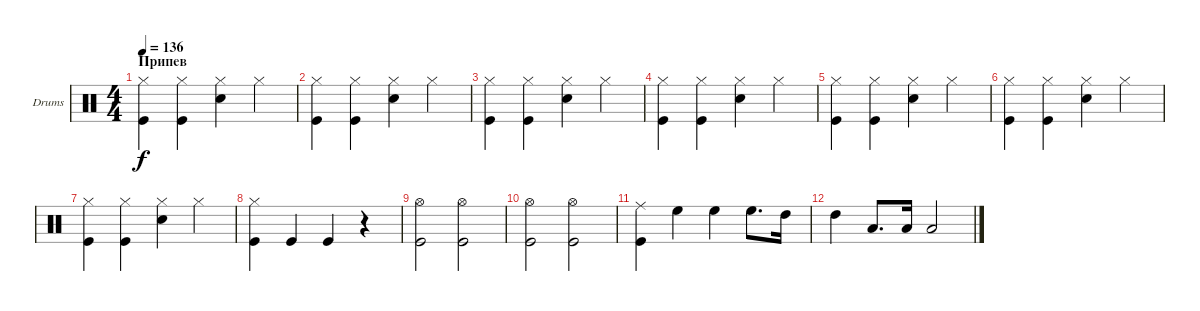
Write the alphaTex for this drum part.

\defaultSystemsLayout 4
\bracketExtendMode groupsimilarinstruments
\firstSystemTrackNameOrientation horizontal
\otherSystemsTrackNameOrientation horizontal
\track ("Drumkit" "Drums") {instrument percussion}
\staff {score}
\articulation defaults
\ts (4 4)
\section ("" "Припев")
\tempo 136
\clef neutral
\ks c
("Hi-Hat (closed)" "Kick (hit)").4{dy f} ("Hi-Hat (closed)" "Kick (hit)").4 ("Snare (hit) 2" "Hi-Hat (closed)").4 "Hi-Hat (closed)".4 |
("Hi-Hat (closed)" "Kick (hit)").4 ("Hi-Hat (closed)" "Kick (hit)").4 ("Snare (hit) 2" "Hi-Hat (closed)").4 "Hi-Hat (closed)".4 |
("Hi-Hat (closed)" "Kick (hit)").4 ("Hi-Hat (closed)" "Kick (hit)").4 ("Snare (hit) 2" "Hi-Hat (closed)").4 "Hi-Hat (closed)".4 |
("Hi-Hat (closed)" "Kick (hit)").4 ("Hi-Hat (closed)" "Kick (hit)").4 ("Snare (hit) 2" "Hi-Hat (closed)").4 "Hi-Hat (closed)".4 |
("Hi-Hat (closed)" "Kick (hit)").4 ("Hi-Hat (closed)" "Kick (hit)").4 ("Snare (hit) 2" "Hi-Hat (closed)").4 "Hi-Hat (closed)".4 |
("Hi-Hat (closed)" "Kick (hit)").4 ("Hi-Hat (closed)" "Kick (hit)").4 ("Snare (hit) 2" "Hi-Hat (closed)").4 "Hi-Hat (closed)".4 |
("Hi-Hat (closed)" "Kick (hit)").4 ("Hi-Hat (closed)" "Kick (hit)").4 ("Snare (hit) 2" "Hi-Hat (closed)").4 "Hi-Hat (closed)".4 |
("Kick (hit)" "Hi-Hat (closed)").4 "Kick (hit)".4 "Kick (hit)".4 r.4 |
("Hi-Hat (open)" "Kick (hit)").2 ("Hi-Hat (open)" "Kick (hit)").2 |
("Hi-Hat (open)" "Kick (hit)").2 ("Hi-Hat (open)" "Kick (hit)").2 |
("Ride (middle)" "Kick (hit)").4 "High Floor Tom (hit)".4 "High Floor Tom (hit)".4 "High Floor Tom (hit)".8{d} "High Tom (hit)".16 |
"High Tom (hit)".4 "Low Tom (hit)".8{d} "Low Tom (hit)".16 "Low Tom (hit)".2
